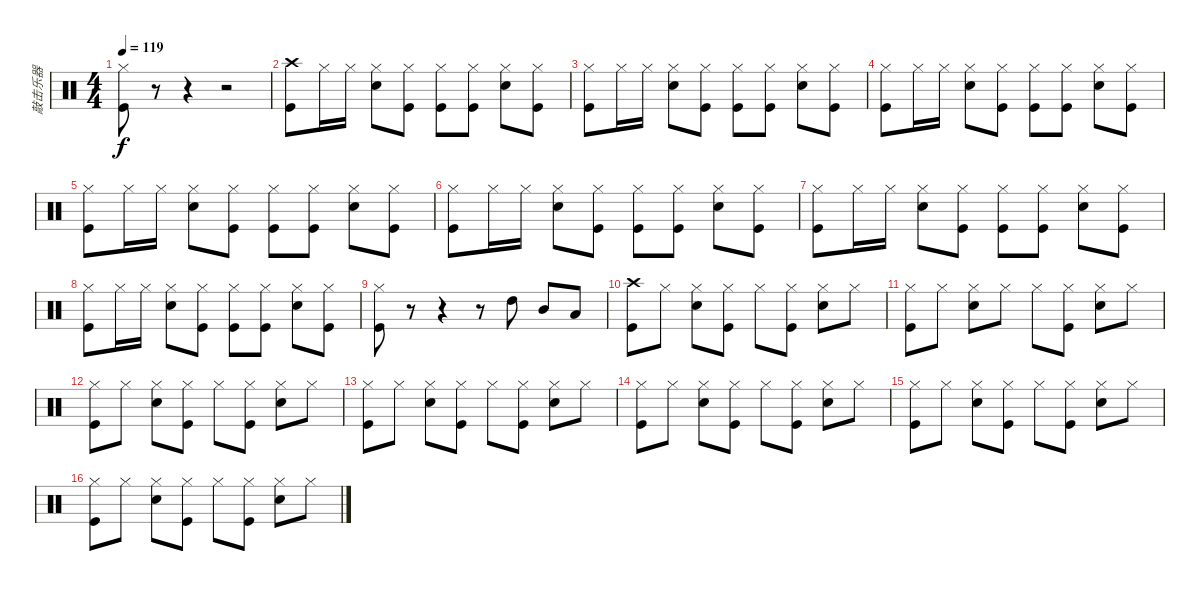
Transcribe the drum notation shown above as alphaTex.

\track ("敲击乐器" "敲击乐器") {instrument percussion}
\staff {score}
\articulation defaults
\ts (4 4)
\tempo 119
\clef neutral
\ks c
("Hi-Hat (closed)" "Kick (hit)").8{dy f} r.8 r.4 r.2 |
("Crash high (hit)" "Kick (hit)").8 "Hi-Hat (closed)".16 "Hi-Hat (closed)".16 ("Hi-Hat (closed)" "Electric Snare (hit)").8 ("Hi-Hat (closed)" "Kick (hit)").8 ("Hi-Hat (closed)" "Kick (hit)").8 ("Hi-Hat (closed)" "Kick (hit)").8 ("Hi-Hat (closed)" "Electric Snare (hit)").8 ("Hi-Hat (closed)" "Kick (hit)").8 |
("Hi-Hat (closed)" "Kick (hit)").8 "Hi-Hat (closed)".16 "Hi-Hat (closed)".16 ("Hi-Hat (closed)" "Electric Snare (hit)").8 ("Hi-Hat (closed)" "Kick (hit)").8 ("Hi-Hat (closed)" "Kick (hit)").8 ("Hi-Hat (closed)" "Kick (hit)").8 ("Hi-Hat (closed)" "Electric Snare (hit)").8 ("Hi-Hat (closed)" "Kick (hit)").8 |
("Hi-Hat (closed)" "Kick (hit)").8 "Hi-Hat (closed)".16 "Hi-Hat (closed)".16 ("Hi-Hat (closed)" "Electric Snare (hit)").8 ("Hi-Hat (closed)" "Kick (hit)").8 ("Hi-Hat (closed)" "Kick (hit)").8 ("Hi-Hat (closed)" "Kick (hit)").8 ("Hi-Hat (closed)" "Electric Snare (hit)").8 ("Hi-Hat (closed)" "Kick (hit)").8 |
("Hi-Hat (closed)" "Kick (hit)").8 "Hi-Hat (closed)".16 "Hi-Hat (closed)".16 ("Hi-Hat (closed)" "Electric Snare (hit)").8 ("Hi-Hat (closed)" "Kick (hit)").8 ("Hi-Hat (closed)" "Kick (hit)").8 ("Hi-Hat (closed)" "Kick (hit)").8 ("Hi-Hat (closed)" "Electric Snare (hit)").8 ("Hi-Hat (closed)" "Kick (hit)").8 |
("Hi-Hat (closed)" "Kick (hit)").8 "Hi-Hat (closed)".16 "Hi-Hat (closed)".16 ("Hi-Hat (closed)" "Electric Snare (hit)").8 ("Hi-Hat (closed)" "Kick (hit)").8 ("Hi-Hat (closed)" "Kick (hit)").8 ("Hi-Hat (closed)" "Kick (hit)").8 ("Hi-Hat (closed)" "Electric Snare (hit)").8 ("Hi-Hat (closed)" "Kick (hit)").8 |
("Hi-Hat (closed)" "Kick (hit)").8 "Hi-Hat (closed)".16 "Hi-Hat (closed)".16 ("Hi-Hat (closed)" "Electric Snare (hit)").8 ("Hi-Hat (closed)" "Kick (hit)").8 ("Hi-Hat (closed)" "Kick (hit)").8 ("Hi-Hat (closed)" "Kick (hit)").8 ("Hi-Hat (closed)" "Electric Snare (hit)").8 ("Hi-Hat (closed)" "Kick (hit)").8 |
("Hi-Hat (closed)" "Kick (hit)").8 "Hi-Hat (closed)".16 "Hi-Hat (closed)".16 ("Hi-Hat (closed)" "Electric Snare (hit)").8 ("Hi-Hat (closed)" "Kick (hit)").8 ("Hi-Hat (closed)" "Kick (hit)").8 ("Hi-Hat (closed)" "Kick (hit)").8 ("Hi-Hat (closed)" "Electric Snare (hit)").8 ("Hi-Hat (closed)" "Kick (hit)").8 |
("Hi-Hat (closed)" "Kick (hit)").8 r.8 r.4 r.8 "High Tom (hit)".8 "Mid Tom (hit)".8 "Low Tom (hit)".8 |
("Crash high (hit)" "Kick (hit)").8 "Hi-Hat (closed)".8 ("Hi-Hat (closed)" "Electric Snare (hit)").8 ("Hi-Hat (closed)" "Kick (hit)").8 "Hi-Hat (closed)".8 ("Hi-Hat (closed)" "Kick (hit)").8 ("Hi-Hat (closed)" "Electric Snare (hit)").8 "Hi-Hat (closed)".8 |
("Hi-Hat (closed)" "Kick (hit)").8 "Hi-Hat (closed)".8 ("Hi-Hat (closed)" "Electric Snare (hit)").8 "Hi-Hat (closed)".8 "Hi-Hat (closed)".8 ("Hi-Hat (closed)" "Kick (hit)").8 ("Hi-Hat (closed)" "Electric Snare (hit)").8 "Hi-Hat (closed)".8 |
("Hi-Hat (closed)" "Kick (hit)").8 "Hi-Hat (closed)".8 ("Hi-Hat (closed)" "Electric Snare (hit)").8 ("Hi-Hat (closed)" "Kick (hit)").8 "Hi-Hat (closed)".8 ("Hi-Hat (closed)" "Kick (hit)").8 ("Hi-Hat (closed)" "Electric Snare (hit)").8 "Hi-Hat (closed)".8 |
("Hi-Hat (closed)" "Kick (hit)").8 "Hi-Hat (closed)".8 ("Hi-Hat (closed)" "Electric Snare (hit)").8 ("Hi-Hat (closed)" "Kick (hit)").8 "Hi-Hat (closed)".8 ("Hi-Hat (closed)" "Kick (hit)").8 ("Hi-Hat (closed)" "Electric Snare (hit)").8 "Hi-Hat (closed)".8 |
("Hi-Hat (closed)" "Kick (hit)").8 "Hi-Hat (closed)".8 ("Hi-Hat (closed)" "Electric Snare (hit)").8 ("Hi-Hat (closed)" "Kick (hit)").8 "Hi-Hat (closed)".8 ("Hi-Hat (closed)" "Kick (hit)").8 ("Hi-Hat (closed)" "Electric Snare (hit)").8 "Hi-Hat (closed)".8 |
("Hi-Hat (closed)" "Kick (hit)").8 "Hi-Hat (closed)".8 ("Hi-Hat (closed)" "Electric Snare (hit)").8 ("Hi-Hat (closed)" "Kick (hit)").8 "Hi-Hat (closed)".8 ("Hi-Hat (closed)" "Kick (hit)").8 ("Hi-Hat (closed)" "Electric Snare (hit)").8 "Hi-Hat (closed)".8 |
("Hi-Hat (closed)" "Kick (hit)").8 "Hi-Hat (closed)".8 ("Hi-Hat (closed)" "Electric Snare (hit)").8 ("Hi-Hat (closed)" "Kick (hit)").8 "Hi-Hat (closed)".8 ("Hi-Hat (closed)" "Kick (hit)").8 ("Hi-Hat (closed)" "Electric Snare (hit)").8 "Hi-Hat (closed)".8
